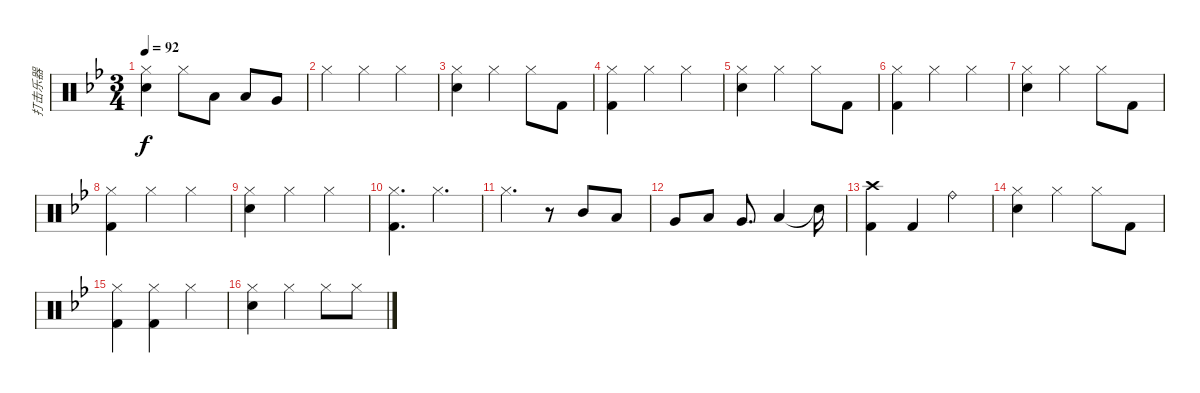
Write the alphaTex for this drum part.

\track ("打击乐器" "打击乐器") {instrument percussion}
\staff {score}
\articulation defaults
\ts (3 4)
\tempo 92
\clef neutral
\ks bb
("Hi-Hat (closed)" "Snare (hit) 2").4{dy f} "Hi-Hat (closed)".8 "Low Tom (hit)".8 "Low Tom (hit)".8 "Very Low Tom (hit)".8 |
"Hi-Hat (closed)".4 "Hi-Hat (closed)".4 "Hi-Hat (closed)".4 |
("Hi-Hat (closed)" "Snare (hit) 2").4 "Hi-Hat (closed)".4 "Hi-Hat (closed)".8 "Kick (hit) 2".8 |
("Hi-Hat (closed)" "Kick (hit) 2").4 "Hi-Hat (closed)".4 "Hi-Hat (closed)".4 |
("Hi-Hat (closed)" "Snare (hit) 2").4 "Hi-Hat (closed)".4 "Hi-Hat (closed)".8 "Kick (hit) 2".8 |
("Hi-Hat (closed)" "Kick (hit) 2").4 "Hi-Hat (closed)".4 "Hi-Hat (closed)".4 |
("Hi-Hat (closed)" "Snare (hit) 2").4 "Hi-Hat (closed)".4 "Hi-Hat (closed)".8 "Kick (hit) 2".8 |
("Hi-Hat (closed)" "Kick (hit) 2").4 "Hi-Hat (closed)".4 "Hi-Hat (closed)".4 |
("Hi-Hat (closed)" "Snare (hit) 2").4 "Hi-Hat (closed)".4 "Hi-Hat (closed)".4 |
("Hi-Hat (closed)" "Kick (hit) 2").4{d} "Hi-Hat (closed)".4{d} |
"Hi-Hat (closed)".4{d} r.8 "Mid Tom (hit)".8 "Low Tom (hit)".8 |
"Very Low Tom (hit)".8 "Low Tom (hit)".8 "Very Low Tom (hit)".8{d} "Low Floor Tom (hit)".4 "Snare (hit)"{t}.16 |
("Crash high (hit)" "Kick (hit) 2").4 "Kick (hit) 2".4 "Ride (bell)".4 |
("Hi-Hat (closed)" "Snare (hit) 2").4 "Hi-Hat (closed)".4 "Hi-Hat (closed)".8 "Kick (hit) 2".8 |
("Hi-Hat (closed)" "Kick (hit) 2").4 ("Hi-Hat (closed)" "Kick (hit) 2").4 "Hi-Hat (closed)".4 |
("Hi-Hat (closed)" "Snare (hit) 2").4 "Hi-Hat (closed)".4 "Hi-Hat (closed)".8 "Hi-Hat (closed)".8
